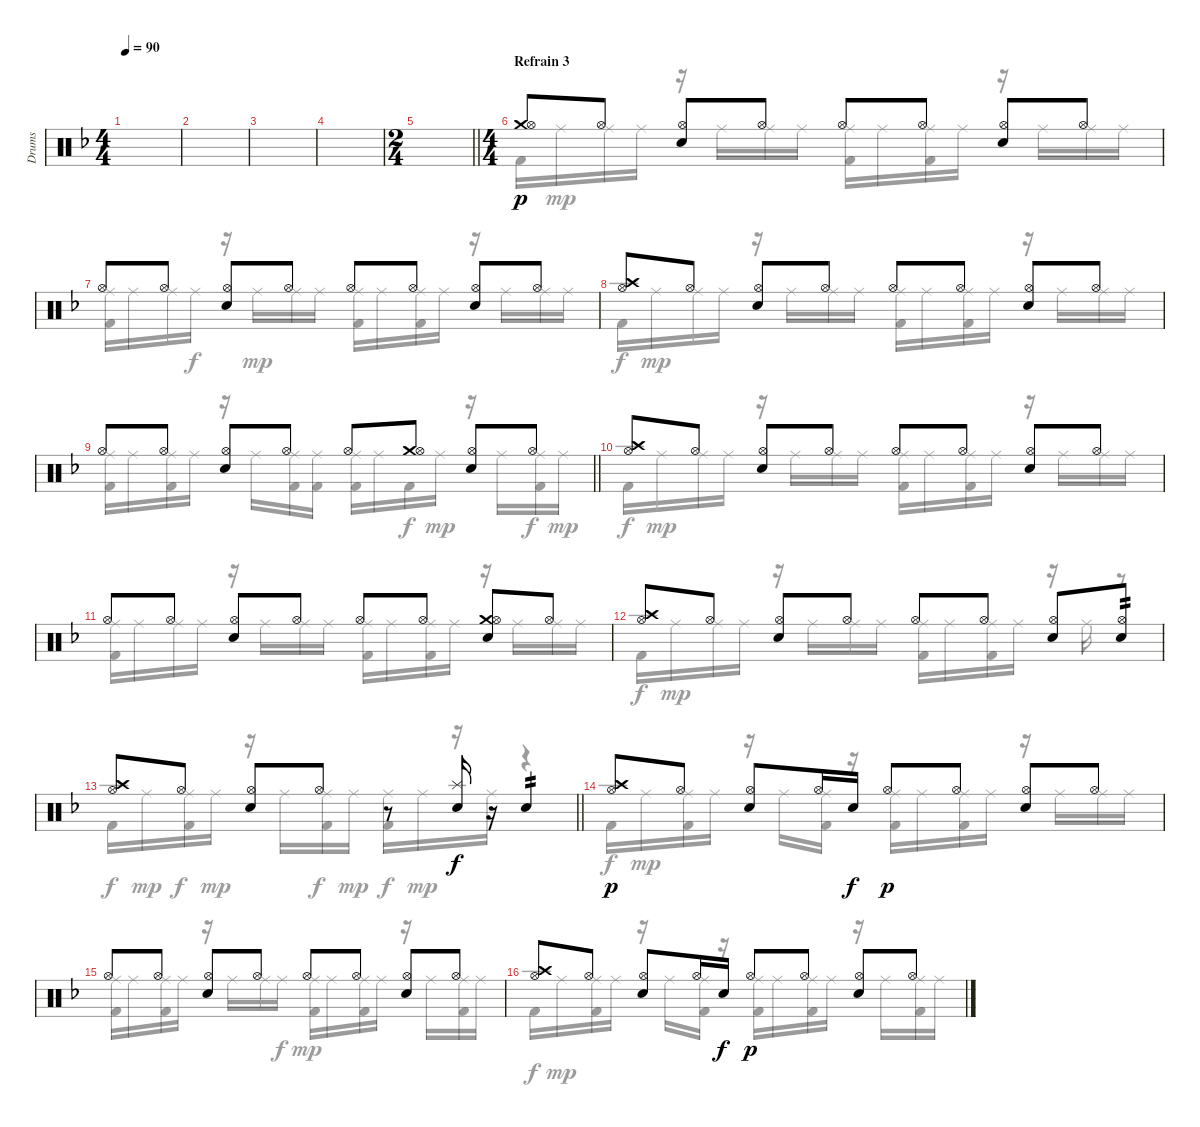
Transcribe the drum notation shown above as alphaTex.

\track ("Drums" "Drums") {instrument percussion}
\staff {score}
\articulation defaults
\voice
\ts (4 4)
\tempo 90
\clef neutral
\ks dminor
|
|
|
|
\ts (2 4)
\barLineRight lightlight
|
\ts (4 4)
\section ("" "Refrain 3")
("Crash medium (hit)" "Hi-Hat (open)").8{dy p} "Hi-Hat (open)".8 ("Electric Snare (hit)" "Hi-Hat (open)").8 "Hi-Hat (open)".8 "Hi-Hat (open)".8 "Hi-Hat (open)".8 ("Electric Snare (hit)" "Hi-Hat (open)").8 "Hi-Hat (open)".8 |
"Hi-Hat (open)".8 "Hi-Hat (open)".8 ("Electric Snare (hit)" "Hi-Hat (open)").8 "Hi-Hat (open)".8 "Hi-Hat (open)".8 "Hi-Hat (open)".8 ("Electric Snare (hit)" "Hi-Hat (open)").8 "Hi-Hat (open)".8 |
("Crash high (hit)" "Hi-Hat (open)").8 "Hi-Hat (open)".8 ("Electric Snare (hit)" "Hi-Hat (open)").8 "Hi-Hat (open)".8 "Hi-Hat (open)".8 "Hi-Hat (open)".8 ("Electric Snare (hit)" "Hi-Hat (open)").8 "Hi-Hat (open)".8 |
\barLineRight lightlight "Hi-Hat (open)".8 "Hi-Hat (open)".8
("Electric Snare (hit)" "Hi-Hat (open)").8 "Hi-Hat (open)".8 "Hi-Hat (open)".8 ("Crash medium (hit)" "Hi-Hat (open)").8 ("Electric Snare (hit)" "Hi-Hat (open)").8 "Hi-Hat (open)".8 |
("Crash high (hit)" "Hi-Hat (open)").8 "Hi-Hat (open)".8 ("Electric Snare (hit)" "Hi-Hat (open)").8 "Hi-Hat (open)".8 "Hi-Hat (open)".8 "Hi-Hat (open)".8 ("Electric Snare (hit)" "Hi-Hat (open)").8 "Hi-Hat (open)".8 |
"Hi-Hat (open)".8 "Hi-Hat (open)".8 ("Electric Snare (hit)" "Hi-Hat (open)").8 "Hi-Hat (open)".8 "Hi-Hat (open)".8 "Hi-Hat (open)".8 ("Crash medium (hit)" "Electric Snare (hit)" "Hi-Hat (open)").8 "Hi-Hat (open)".8 |
("Crash high (hit)" "Hi-Hat (open)").8 "Hi-Hat (open)".8 ("Electric Snare (hit)" "Hi-Hat (open)").8 "Hi-Hat (open)".8 "Hi-Hat (open)".8 "Hi-Hat (open)".8 ("Electric Snare (hit)" "Hi-Hat (open)").8 ("Electric Snare (hit)" "Hi-Hat (open)").8{tp 2} |
\barLineRight lightlight
("Crash high (hit)" "Hi-Hat (open)").8 "Hi-Hat (open)".8 ("Electric Snare (hit)" "Hi-Hat (open)").8 "Hi-Hat (open)".8 r.8 ("Splash (hit)" "Electric Snare (hit)").16{dy f} r.16 "Electric Snare (hit)".4{tp 2} |
("Crash high (hit)" "Hi-Hat (open)").8{dy p} "Hi-Hat (open)".8 ("Electric Snare (hit)" "Hi-Hat (open)").8 "Hi-Hat (open)".16 "Electric Snare (hit)".16{dy f} "Hi-Hat (open)".8{dy p} "Hi-Hat (open)".8 ("Electric Snare (hit)" "Hi-Hat (open)").8 "Hi-Hat (open)".8 |
"Hi-Hat (open)".8 "Hi-Hat (open)".8 ("Electric Snare (hit)" "Hi-Hat (open)").8 "Hi-Hat (open)".8 "Hi-Hat (open)".8 "Hi-Hat (open)".8 ("Electric Snare (hit)" "Hi-Hat (open)").8 "Hi-Hat (open)".8 |
("Crash high (hit)" "Hi-Hat (open)").8 "Hi-Hat (open)".8 ("Electric Snare (hit)" "Hi-Hat (open)").8 "Hi-Hat (open)".16 "Electric Snare (hit)".16{dy f} "Hi-Hat (open)".8{dy p} "Hi-Hat (open)".8 ("Electric Snare (hit)" "Hi-Hat (open)").8 "Hi-Hat (open)".8
\voice
\clef neutral
\ottava regular
\simile none
\ks dminor
|
|
|
|
\barLineRight lightlight
|
"Kick (hit) 2".16 "Ride (middle)".16{dy mp} "Ride (middle)".16 "Ride (middle)".16 r.16 "Ride (middle)".16 "Ride (middle)".16 "Ride (middle)".16 ("Ride (middle)" "Kick (hit) 2").16 "Ride (middle)".16 ("Ride (middle)" "Kick (hit) 2").16 "Ride (middle)".16 r.16 "Ride (middle)".16 "Ride (middle)".16 "Ride (middle)".16 |
("Ride (middle)" "Kick (hit) 2").16 "Ride (middle)".16 "Ride (middle)".16 "Ride (middle)".16{dy f} r.16 "Ride (middle)".16{dy mp} "Ride (middle)".16 "Ride (middle)".16 ("Ride (middle)" "Kick (hit) 2").16 "Ride (middle)".16 ("Ride (middle)" "Kick (hit) 2").16 "Ride (middle)".16 r.16 "Ride (middle)".16 "Ride (middle)".16 "Ride (middle)".16 |
"Kick (hit) 2".16{dy f} "Ride (middle)".16{dy mp} "Ride (middle)".16 "Ride (middle)".16 r.16 "Ride (middle)".16 "Ride (middle)".16 "Ride (middle)".16 ("Ride (middle)" "Kick (hit) 2").16 "Ride (middle)".16 ("Ride (middle)" "Kick (hit) 2").16 "Ride (middle)".16 r.16 "Ride (middle)".16 "Ride (middle)".16 "Ride (middle)".16 |
\barLineRight lightlight
("Ride (middle)" "Kick (hit) 2").16 "Ride (middle)".16 ("Ride (middle)" "Kick (hit) 2").16 "Ride (middle)".16 r.16 "Ride (middle)".16 ("Ride (middle)" "Kick (hit) 2").16 ("Ride (middle)" "Kick (hit) 2").16 ("Ride (middle)" "Kick (hit) 2").16 "Ride (middle)".16 "Kick (hit) 2".16{dy f} "Ride (middle)".16{dy mp} r.16 "Ride (middle)".16 ("Ride (middle)" "Kick (hit) 2").16{dy f} "Ride (middle)".16{dy mp} |
"Kick (hit) 2".16{dy f} "Ride (middle)".16{dy mp} "Ride (middle)".16 "Ride (middle)".16 r.16 "Ride (middle)".16 "Ride (middle)".16 "Ride (middle)".16 ("Ride (middle)" "Kick (hit) 2").16 "Ride (middle)".16 ("Ride (middle)" "Kick (hit) 2").16 "Ride (middle)".16 r.16 "Ride (middle)".16 "Ride (middle)".16 "Ride (middle)".16 |
("Ride (middle)" "Kick (hit) 2").16 "Ride (middle)".16 "Ride (middle)".16 "Ride (middle)".16 r.16 "Ride (middle)".16 "Ride (middle)".16 "Ride (middle)".16 ("Ride (middle)" "Kick (hit) 2").16 "Ride (middle)".16 ("Ride (middle)" "Kick (hit) 2").16 "Ride (middle)".16 r.16 "Ride (middle)".16 "Ride (middle)".16 "Ride (middle)".16 |
"Kick (hit) 2".16{dy f} "Ride (middle)".16{dy mp} "Ride (middle)".16 "Ride (middle)".16 r.16 "Ride (middle)".16 "Ride (middle)".16 "Ride (middle)".16 ("Ride (middle)" "Kick (hit) 2").16 "Ride (middle)".16 ("Ride (middle)" "Kick (hit) 2").16 "Ride (middle)".16 r.16 "Ride (middle)".16 r.8 |
\barLineRight lightlight "Kick (hit) 2".16{dy f} "Ride (middle)".16{dy mp}
("Ride (middle)" "Kick (hit) 2").16{dy f} "Ride (middle)".16{dy mp} r.16 "Ride (middle)".16 ("Ride (middle)" "Kick (hit) 2").16{dy f} "Ride (middle)".16{dy mp} ("Ride (middle)" "Kick (hit) 2").16{dy f} "Ride (middle)".16{dy mp} r.16 "Ride (middle)".16 r.4 |
"Kick (hit) 2".16{dy f} "Ride (middle)".16{dy mp} ("Ride (middle)" "Kick (hit) 2").16 "Ride (middle)".16 r.16 "Ride (middle)".16 ("Ride (middle)" "Kick (hit) 2").16 r.16 ("Ride (middle)" "Kick (hit) 2").16 "Ride (middle)".16 ("Ride (middle)" "Kick (hit) 2").16 "Ride (middle)".16 r.16 "Ride (middle)".16 "Ride (middle)".16 "Ride (middle)".16 |
("Ride (middle)" "Kick (hit) 2").16 "Ride (middle)".16 ("Ride (middle)" "Kick (hit) 2").16 "Ride (middle)".16 r.16 "Ride (middle)".16 "Ride (middle)".16 "Ride (middle)".16{dy f} ("Ride (middle)" "Kick (hit) 2").16{dy mp} "Ride (middle)".16 ("Ride (middle)" "Kick (hit) 2").16 "Ride (middle)".16 r.16 "Ride (middle)".16 ("Ride (middle)" "Kick (hit) 2").16 "Ride (middle)".16 |
"Kick (hit) 2".16{dy f} "Ride (middle)".16{dy mp} ("Ride (middle)" "Kick (hit) 2").16 "Ride (middle)".16 r.16 "Ride (middle)".16 ("Ride (middle)" "Kick (hit) 2").16 r.16 ("Ride (middle)" "Kick (hit) 2").16 "Ride (middle)".16 ("Ride (middle)" "Kick (hit) 2").16 "Ride (middle)".16 r.16 "Ride (middle)".16 ("Ride (middle)" "Kick (hit) 2").16 "Ride (middle)".16
